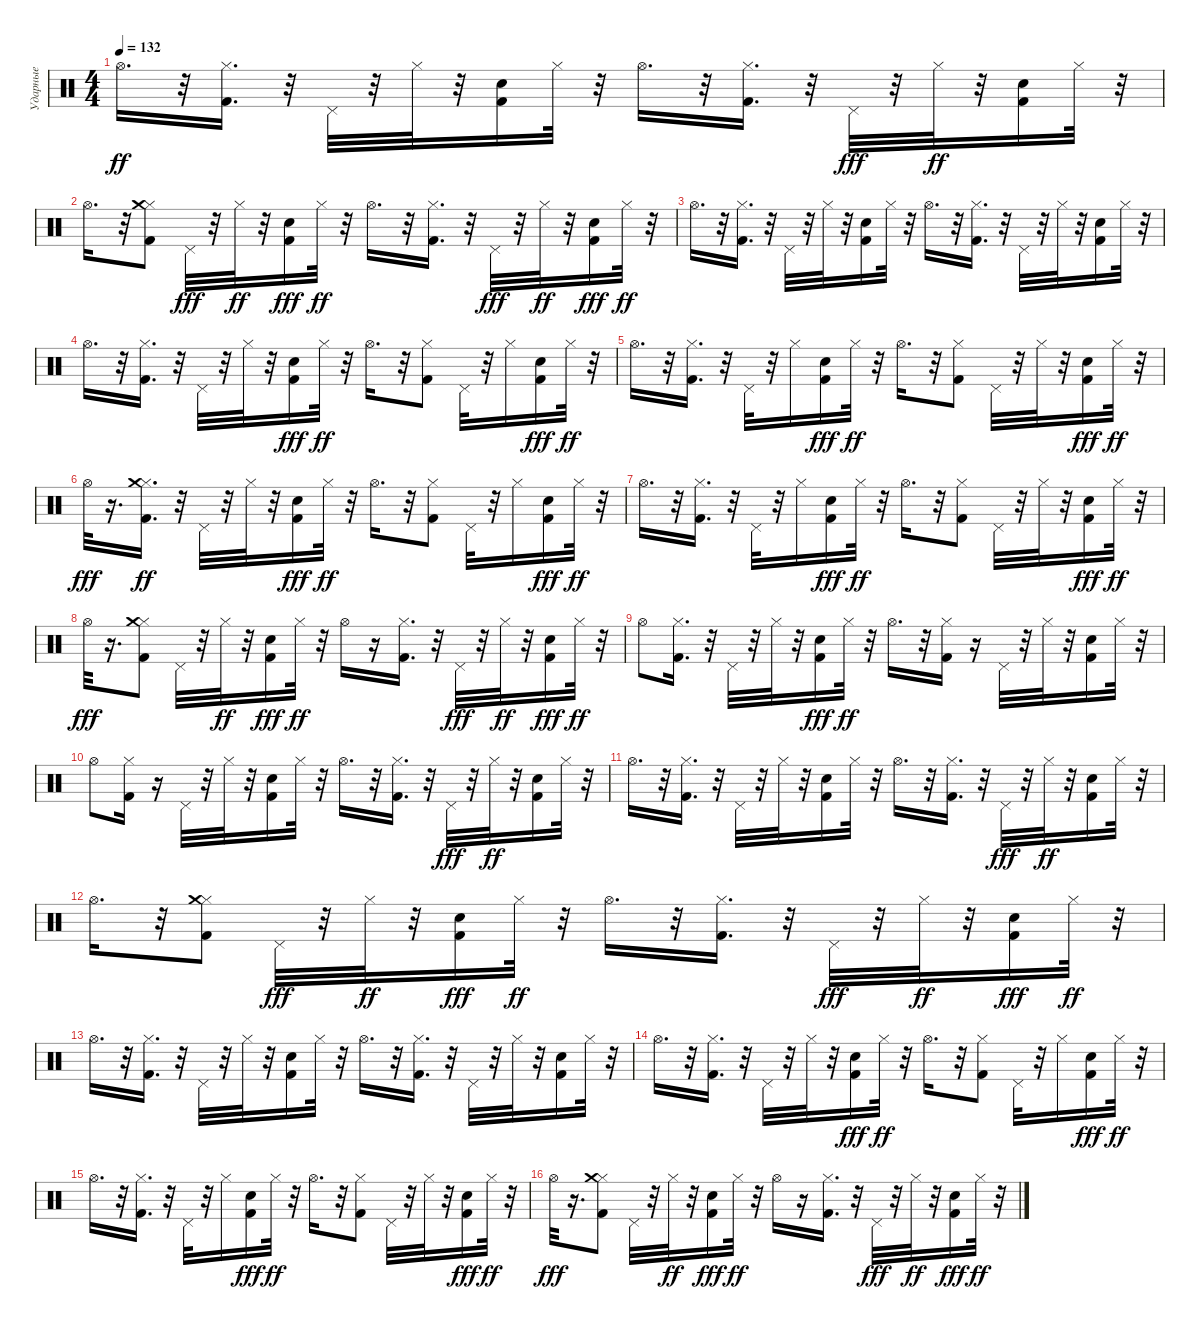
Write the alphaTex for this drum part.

\track ("Ударные" "Ударные") {instrument percussion}
\staff {score}
\articulation defaults
\ts (4 4)
\tempo 132
\clef neutral
\ks c "Hi-Hat (open)".16{d dy ff}
r.32 ("Kick (hit) 2" "Hi-Hat (closed)").16{d} r.32 "Pedal Hi-Hat (hit)".32 r.32 "Hi-Hat (closed)".32 r.32 ("Kick (hit) 2" "Snare (hit) 2").16 "Hi-Hat (closed)".32 r.32 "Hi-Hat (open)".16{d} r.32 ("Kick (hit) 2" "Hi-Hat (closed)").16{d} r.32 "Pedal Hi-Hat (hit)".32{dy fff} r.32 "Hi-Hat (closed)".32{dy ff} r.32 ("Kick (hit) 2" "Snare (hit) 2").16 "Hi-Hat (closed)".32 r.32 |
"Hi-Hat (open)".16{d} r.32 ("Kick (hit) 2" "Hi-Hat (closed)" "Crash medium (hit)").8 "Pedal Hi-Hat (hit)".32{dy fff} r.32 "Hi-Hat (closed)".32{dy ff} r.32 ("Kick (hit) 2" "Snare (hit) 2").16{dy fff} "Hi-Hat (closed)".32{dy ff} r.32 "Hi-Hat (open)".16{d} r.32 ("Kick (hit) 2" "Hi-Hat (closed)").16{d} r.32 "Pedal Hi-Hat (hit)".32{dy fff} r.32 "Hi-Hat (closed)".32{dy ff} r.32 ("Kick (hit) 2" "Snare (hit) 2").16{dy fff} "Hi-Hat (closed)".32{dy ff} r.32 |
"Hi-Hat (open)".16{d} r.32 ("Kick (hit) 2" "Hi-Hat (closed)").16{d} r.32 "Pedal Hi-Hat (hit)".32 r.32 "Hi-Hat (closed)".32 r.32 ("Kick (hit) 2" "Snare (hit) 2").16 "Hi-Hat (closed)".32 r.32 "Hi-Hat (open)".16{d} r.32 ("Kick (hit) 2" "Hi-Hat (closed)").16{d} r.32 "Pedal Hi-Hat (hit)".32 r.32 "Hi-Hat (closed)".32 r.32 ("Kick (hit) 2" "Snare (hit) 2").16 "Hi-Hat (closed)".32 r.32 |
"Hi-Hat (open)".16{d} r.32 ("Kick (hit) 2" "Hi-Hat (closed)").16{d} r.32 "Pedal Hi-Hat (hit)".32 r.32 "Hi-Hat (closed)".32 r.32 ("Kick (hit) 2" "Snare (hit) 2").16{dy fff} "Hi-Hat (closed)".32{dy ff} r.32 "Hi-Hat (open)".16{d} r.32 ("Kick (hit) 2" "Hi-Hat (closed)").8 "Pedal Hi-Hat (hit)".32 r.32 "Hi-Hat (closed)".16 ("Kick (hit) 2" "Snare (hit) 2").16{dy fff} "Hi-Hat (closed)".32{dy ff} r.32 |
"Hi-Hat (open)".16{d} r.32 ("Kick (hit) 2" "Hi-Hat (closed)").16{d} r.32 "Pedal Hi-Hat (hit)".32 r.32 "Hi-Hat (closed)".16 ("Kick (hit) 2" "Snare (hit) 2").16{dy fff} "Hi-Hat (closed)".32{dy ff} r.32 "Hi-Hat (open)".16{d} r.32 ("Kick (hit) 2" "Hi-Hat (closed)").8 "Pedal Hi-Hat (hit)".32 r.32 "Hi-Hat (closed)".32 r.32 ("Kick (hit) 2" "Snare (hit) 2").16{dy fff} "Hi-Hat (closed)".32{dy ff} r.32 |
"Hi-Hat (open)".32{dy fff} r.16{d} ("Kick (hit) 2" "Hi-Hat (closed)" "Crash medium (hit)").16{d dy ff} r.32 "Pedal Hi-Hat (hit)".32 r.32 "Hi-Hat (closed)".32 r.32 ("Kick (hit) 2" "Snare (hit) 2").16{dy fff} "Hi-Hat (closed)".32{dy ff} r.32 "Hi-Hat (open)".16{d} r.32 ("Kick (hit) 2" "Hi-Hat (closed)").8 "Pedal Hi-Hat (hit)".32 r.32 "Hi-Hat (closed)".16 ("Kick (hit) 2" "Snare (hit) 2").16{dy fff} "Hi-Hat (closed)".32{dy ff} r.32 |
"Hi-Hat (open)".16{d} r.32 ("Kick (hit) 2" "Hi-Hat (closed)").16{d} r.32 "Pedal Hi-Hat (hit)".32 r.32 "Hi-Hat (closed)".16 ("Kick (hit) 2" "Snare (hit) 2").16{dy fff} "Hi-Hat (closed)".32{dy ff} r.32 "Hi-Hat (open)".16{d} r.32 ("Kick (hit) 2" "Hi-Hat (closed)").8 "Pedal Hi-Hat (hit)".32 r.32 "Hi-Hat (closed)".32 r.32 ("Kick (hit) 2" "Snare (hit) 2").16{dy fff} "Hi-Hat (closed)".32{dy ff} r.32 |
"Hi-Hat (open)".32{dy fff} r.16{d} ("Kick (hit) 2" "Hi-Hat (closed)" "Crash medium (hit)").8 "Pedal Hi-Hat (hit)".32 r.32 "Hi-Hat (closed)".32{dy ff} r.32 ("Kick (hit) 2" "Snare (hit) 2").16{dy fff} "Hi-Hat (closed)".32{dy ff} r.32 "Hi-Hat (open)".16 r.16 ("Kick (hit) 2" "Hi-Hat (closed)").16{d} r.32 "Pedal Hi-Hat (hit)".32{dy fff} r.32 "Hi-Hat (closed)".32{dy ff} r.32 ("Kick (hit) 2" "Snare (hit) 2").16{dy fff} "Hi-Hat (closed)".32{dy ff} r.32 |
"Hi-Hat (open)".8 ("Kick (hit) 2" "Hi-Hat (closed)").16{d} r.32 "Pedal Hi-Hat (hit)".32 r.32 "Hi-Hat (closed)".32 r.32 ("Kick (hit) 2" "Snare (hit) 2").16{dy fff} "Hi-Hat (closed)".32{dy ff} r.32 "Hi-Hat (open)".16{d} r.32 ("Kick (hit) 2" "Hi-Hat (closed)").16 r.16 "Pedal Hi-Hat (hit)".32 r.32 "Hi-Hat (closed)".32 r.32 ("Kick (hit) 2" "Snare (hit) 2").16 "Hi-Hat (closed)".32 r.32 |
"Hi-Hat (open)".8 ("Kick (hit) 2" "Hi-Hat (closed)").16 r.16 "Pedal Hi-Hat (hit)".32 r.32 "Hi-Hat (closed)".32 r.32 ("Kick (hit) 2" "Snare (hit) 2").16 "Hi-Hat (closed)".32 r.32 "Hi-Hat (open)".16{d} r.32 ("Kick (hit) 2" "Hi-Hat (closed)").16{d} r.32 "Pedal Hi-Hat (hit)".32{dy fff} r.32 "Hi-Hat (closed)".32{dy ff} r.32 ("Kick (hit) 2" "Snare (hit) 2").16 "Hi-Hat (closed)".32 r.32 |
"Hi-Hat (open)".16{d} r.32 ("Kick (hit) 2" "Hi-Hat (closed)").16{d} r.32 "Pedal Hi-Hat (hit)".32 r.32 "Hi-Hat (closed)".32 r.32 ("Kick (hit) 2" "Snare (hit) 2").16 "Hi-Hat (closed)".32 r.32 "Hi-Hat (open)".16{d} r.32 ("Kick (hit) 2" "Hi-Hat (closed)").16{d} r.32 "Pedal Hi-Hat (hit)".32{dy fff} r.32 "Hi-Hat (closed)".32{dy ff} r.32 ("Kick (hit) 2" "Snare (hit) 2").16 "Hi-Hat (closed)".32 r.32 |
"Hi-Hat (open)".16{d} r.32 ("Kick (hit) 2" "Hi-Hat (closed)" "Crash medium (hit)").8 "Pedal Hi-Hat (hit)".32{dy fff} r.32 "Hi-Hat (closed)".32{dy ff} r.32 ("Kick (hit) 2" "Snare (hit) 2").16{dy fff} "Hi-Hat (closed)".32{dy ff} r.32 "Hi-Hat (open)".16{d} r.32 ("Kick (hit) 2" "Hi-Hat (closed)").16{d} r.32 "Pedal Hi-Hat (hit)".32{dy fff} r.32 "Hi-Hat (closed)".32{dy ff} r.32 ("Kick (hit) 2" "Snare (hit) 2").16{dy fff} "Hi-Hat (closed)".32{dy ff} r.32 |
"Hi-Hat (open)".16{d} r.32 ("Kick (hit) 2" "Hi-Hat (closed)").16{d} r.32 "Pedal Hi-Hat (hit)".32 r.32 "Hi-Hat (closed)".32 r.32 ("Kick (hit) 2" "Snare (hit) 2").16 "Hi-Hat (closed)".32 r.32 "Hi-Hat (open)".16{d} r.32 ("Kick (hit) 2" "Hi-Hat (closed)").16{d} r.32 "Pedal Hi-Hat (hit)".32 r.32 "Hi-Hat (closed)".32 r.32 ("Kick (hit) 2" "Snare (hit) 2").16 "Hi-Hat (closed)".32 r.32 |
"Hi-Hat (open)".16{d} r.32 ("Kick (hit) 2" "Hi-Hat (closed)").16{d} r.32 "Pedal Hi-Hat (hit)".32 r.32 "Hi-Hat (closed)".32 r.32 ("Kick (hit) 2" "Snare (hit) 2").16{dy fff} "Hi-Hat (closed)".32{dy ff} r.32 "Hi-Hat (open)".16{d} r.32 ("Kick (hit) 2" "Hi-Hat (closed)").8 "Pedal Hi-Hat (hit)".32 r.32 "Hi-Hat (closed)".16 ("Kick (hit) 2" "Snare (hit) 2").16{dy fff} "Hi-Hat (closed)".32{dy ff} r.32 |
"Hi-Hat (open)".16{d} r.32 ("Kick (hit) 2" "Hi-Hat (closed)").16{d} r.32 "Pedal Hi-Hat (hit)".32 r.32 "Hi-Hat (closed)".16 ("Kick (hit) 2" "Snare (hit) 2").16{dy fff} "Hi-Hat (closed)".32{dy ff} r.32 "Hi-Hat (open)".16{d} r.32 ("Kick (hit) 2" "Hi-Hat (closed)").8 "Pedal Hi-Hat (hit)".32 r.32 "Hi-Hat (closed)".32 r.32 ("Kick (hit) 2" "Snare (hit) 2").16{dy fff} "Hi-Hat (closed)".32{dy ff} r.32 |
"Hi-Hat (open)".32{dy fff} r.16{d} ("Kick (hit) 2" "Hi-Hat (closed)" "Crash medium (hit)").8 "Pedal Hi-Hat (hit)".32 r.32 "Hi-Hat (closed)".32{dy ff} r.32 ("Kick (hit) 2" "Snare (hit) 2").16{dy fff} "Hi-Hat (closed)".32{dy ff} r.32 "Hi-Hat (open)".16 r.16 ("Kick (hit) 2" "Hi-Hat (closed)").16{d} r.32 "Pedal Hi-Hat (hit)".32{dy fff} r.32 "Hi-Hat (closed)".32{dy ff} r.32 ("Kick (hit) 2" "Snare (hit) 2").16{dy fff} "Hi-Hat (closed)".32{dy ff} r.32
